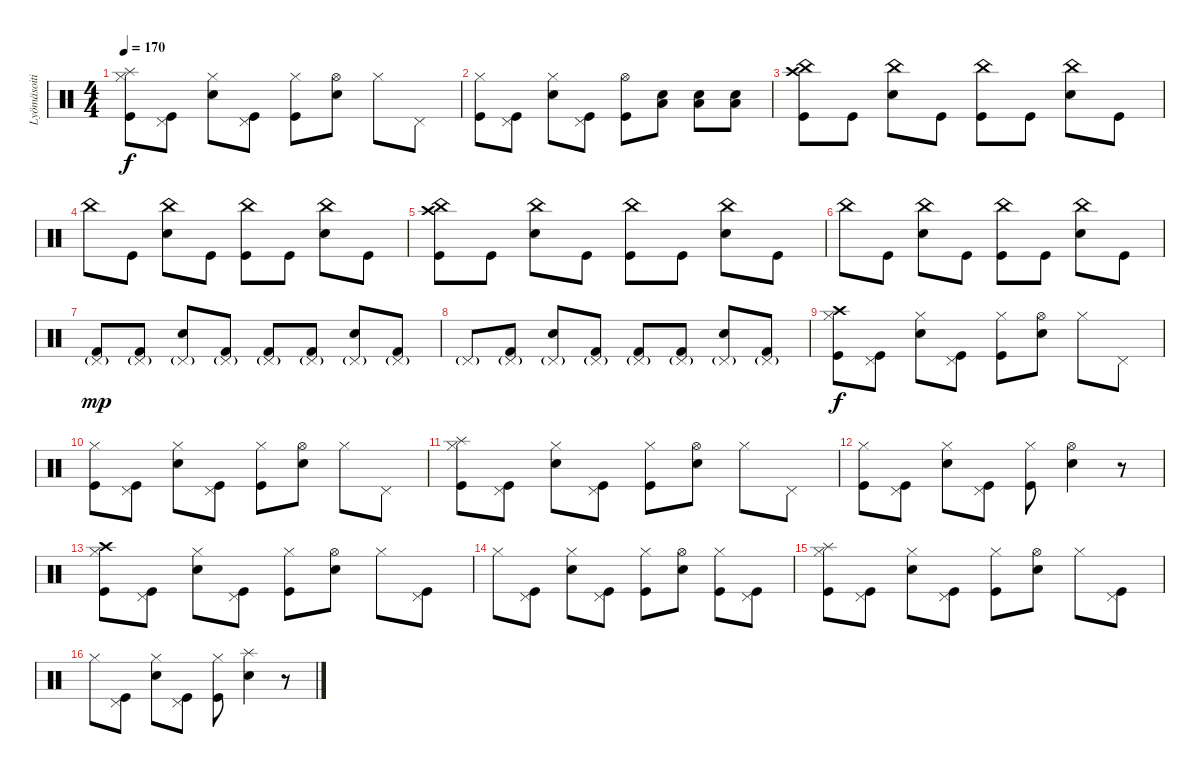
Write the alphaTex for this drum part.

\track ("Lyömäsoitin" "Lyömäsoiti") {instrument percussion}
\staff {score}
\articulation defaults
\ts (4 4)
\tempo 170
\clef neutral
\ks c
("Splash (hit)" "Hi-Hat (closed)" "Kick (hit)").8{dy f} ("Pedal Hi-Hat (hit)" "Kick (hit)").8 ("Hi-Hat (closed)" "Snare (hit) 2").8 ("Pedal Hi-Hat (hit)" "Kick (hit)").8 ("Hi-Hat (closed)" "Kick (hit)").8 ("Hi-Hat (open)" "Snare (hit) 2").8 "Hi-Hat (closed)".8 "Pedal Hi-Hat (hit)".8 |
("Hi-Hat (closed)" "Kick (hit)").8 ("Pedal Hi-Hat (hit)" "Kick (hit)").8 ("Hi-Hat (closed)" "Snare (hit) 2").8 ("Pedal Hi-Hat (hit)" "Kick (hit)").8 ("Hi-Hat (open)" "Kick (hit)").8 ("Low Tom (hit)" "Snare (hit) 2").8 ("Low Tom (hit)" "Snare (hit) 2").8 ("Low Tom (hit)" "Snare (hit) 2").8 |
("Crash high (hit)" "China (hit)" "Kick (hit)").8 "Kick (hit)".8 ("China (hit)" "Snare (hit) 2").8 "Kick (hit)".8 ("China (hit)" "Kick (hit)").8 "Kick (hit)".8 ("China (hit)" "Snare (hit) 2").8 "Kick (hit)".8 |
"China (hit)".8 "Kick (hit)".8 ("China (hit)" "Snare (hit) 2").8 "Kick (hit)".8 ("China (hit)" "Kick (hit)").8 "Kick (hit)".8 ("China (hit)" "Snare (hit) 2").8 "Kick (hit)".8 |
("Crash high (hit)" "China (hit)" "Kick (hit)").8 "Kick (hit)".8 ("China (hit)" "Snare (hit) 2").8 "Kick (hit)".8 ("China (hit)" "Kick (hit)").8 "Kick (hit)".8 ("China (hit)" "Snare (hit) 2").8 "Kick (hit)".8 |
"China (hit)".8 "Kick (hit)".8 ("China (hit)" "Snare (hit) 2").8 "Kick (hit)".8 ("China (hit)" "Kick (hit)").8 "Kick (hit)".8 ("China (hit)" "Snare (hit) 2").8 "Kick (hit)".8 |
("Pedal Hi-Hat (hit)"{g} "Kick (hit) 2").8{dy mp volume 10} ("Pedal Hi-Hat (hit)"{g} "Kick (hit) 2").8 ("Pedal Hi-Hat (hit)"{g} "Snare (hit) 2").8 ("Pedal Hi-Hat (hit)"{g} "Kick (hit) 2").8 ("Pedal Hi-Hat (hit)"{g} "Kick (hit) 2").8 ("Pedal Hi-Hat (hit)"{g} "Kick (hit) 2").8 ("Pedal Hi-Hat (hit)"{g} "Snare (hit) 2").8 ("Pedal Hi-Hat (hit)"{g} "Kick (hit) 2").8 |
"Pedal Hi-Hat (hit)"{g}.8 ("Pedal Hi-Hat (hit)"{g} "Kick (hit) 2").8 ("Pedal Hi-Hat (hit)"{g} "Snare (hit) 2").8 ("Pedal Hi-Hat (hit)"{g} "Kick (hit) 2").8 ("Pedal Hi-Hat (hit)"{g} "Kick (hit) 2").8 ("Pedal Hi-Hat (hit)"{g} "Kick (hit) 2").8 ("Pedal Hi-Hat (hit)"{g} "Snare (hit) 2").8 ("Pedal Hi-Hat (hit)"{g} "Kick (hit) 2").8 |
("Crash high (hit)" "Hi-Hat (closed)" "Kick (hit)").8{dy f} ("Pedal Hi-Hat (hit)" "Kick (hit)").8 ("Hi-Hat (closed)" "Snare (hit) 2").8 ("Pedal Hi-Hat (hit)" "Kick (hit)").8 ("Hi-Hat (closed)" "Kick (hit)").8 ("Hi-Hat (open)" "Snare (hit) 2").8 "Hi-Hat (closed)".8 "Pedal Hi-Hat (hit)".8 |
("Hi-Hat (closed)" "Kick (hit)").8 ("Pedal Hi-Hat (hit)" "Kick (hit)").8 ("Hi-Hat (closed)" "Snare (hit) 2").8 ("Pedal Hi-Hat (hit)" "Kick (hit)").8 ("Hi-Hat (closed)" "Kick (hit)").8 ("Hi-Hat (open)" "Snare (hit) 2").8 "Hi-Hat (closed)".8 "Pedal Hi-Hat (hit)".8 |
("Splash (hit)" "Hi-Hat (closed)" "Kick (hit)").8 ("Pedal Hi-Hat (hit)" "Kick (hit)").8 ("Hi-Hat (closed)" "Snare (hit) 2").8 ("Pedal Hi-Hat (hit)" "Kick (hit)").8 ("Hi-Hat (closed)" "Kick (hit)").8 ("Hi-Hat (open)" "Snare (hit) 2").8 "Hi-Hat (closed)".8 "Pedal Hi-Hat (hit)".8 |
("Hi-Hat (closed)" "Kick (hit)").8 ("Pedal Hi-Hat (hit)" "Kick (hit)").8 ("Hi-Hat (closed)" "Snare (hit) 2").8 ("Pedal Hi-Hat (hit)" "Kick (hit)").8 ("Hi-Hat (closed)" "Kick (hit)").8 ("Hi-Hat (open)" "Snare (hit) 2").4 r.8 |
("Crash high (hit)" "Hi-Hat (closed)" "Kick (hit)").8 ("Pedal Hi-Hat (hit)" "Kick (hit)").8 ("Hi-Hat (closed)" "Snare (hit) 2").8 ("Pedal Hi-Hat (hit)" "Kick (hit)").8 ("Hi-Hat (closed)" "Kick (hit)").8 ("Hi-Hat (open)" "Snare (hit) 2").8 "Hi-Hat (closed)".8 ("Pedal Hi-Hat (hit)" "Kick (hit)").8 |
"Hi-Hat (closed)".8 ("Pedal Hi-Hat (hit)" "Kick (hit)").8 ("Hi-Hat (closed)" "Snare (hit) 2").8 ("Pedal Hi-Hat (hit)" "Kick (hit)").8 ("Hi-Hat (closed)" "Kick (hit)").8 ("Hi-Hat (open)" "Snare (hit) 2").8 ("Hi-Hat (closed)" "Kick (hit)").8 ("Pedal Hi-Hat (hit)" "Kick (hit)").8 |
("Splash (hit)" "Hi-Hat (closed)" "Kick (hit)").8 ("Pedal Hi-Hat (hit)" "Kick (hit)").8 ("Hi-Hat (closed)" "Snare (hit) 2").8 ("Pedal Hi-Hat (hit)" "Kick (hit)").8 ("Hi-Hat (closed)" "Kick (hit)").8 ("Hi-Hat (open)" "Snare (hit) 2").8 "Hi-Hat (closed)".8 ("Pedal Hi-Hat (hit)" "Kick (hit)").8 |
"Hi-Hat (closed)".8 ("Pedal Hi-Hat (hit)" "Kick (hit)").8 ("Hi-Hat (closed)" "Snare (hit) 2").8 ("Pedal Hi-Hat (hit)" "Kick (hit)").8 ("Hi-Hat (closed)" "Kick (hit)").8 ("Splash (hit)" "Snare (hit) 2").4 r.8
